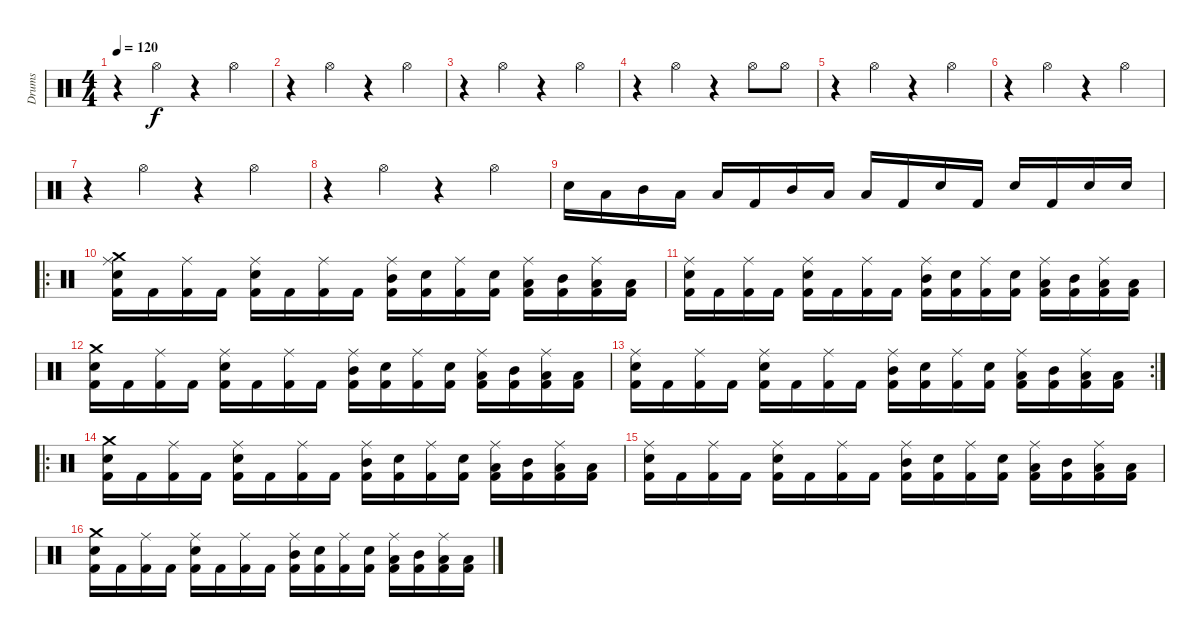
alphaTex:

\track ("Drums" "Drums") {instrument percussion}
\staff {score}
\articulation defaults
\ts (4 4)
\tempo 120
\clef neutral
\ks c
r.4{dy f} "Hi-Hat (open)".4 r.4 "Hi-Hat (open)".4 |
r.4 "Hi-Hat (open)".4 r.4 "Hi-Hat (open)".4 |
r.4 "Hi-Hat (open)".4 r.4 "Hi-Hat (open)".4 |
r.4 "Hi-Hat (open)".4 r.4 "Hi-Hat (open)".8 "Hi-Hat (open)".8 |
r.4 "Hi-Hat (open)".4 r.4 "Hi-Hat (open)".4 |
r.4 "Hi-Hat (open)".4 r.4 "Hi-Hat (open)".4 |
r.4 "Hi-Hat (open)".4 r.4 "Hi-Hat (open)".4 |
r.4 "Hi-Hat (open)".4 r.4 "Hi-Hat (open)".4 |
"Snare (hit) 2".16 "Low Floor Tom (hit)".16 "Mid Tom (hit)".16 "Low Tom (hit)".16 "Low Floor Tom (hit)".16 "Kick (hit) 2".16 "Mid Tom (hit)".16 "Low Tom (hit)".16 "Low Floor Tom (hit)".16 "Kick (hit) 2".16 "Snare (hit) 2".16 "Kick (hit) 2".16 "Snare (hit) 2".16 "Kick (hit) 2".16 "Snare (hit) 2".16 "Snare (hit) 2".16 |
\ro
("Crash medium (hit)" "Ride (middle)" "Snare (hit) 2" "Kick (hit) 2").16 "Kick (hit) 2".16 ("Ride (middle)" "Kick (hit) 2").16 "Kick (hit) 2".16 ("Ride (middle)" "Snare (hit) 2" "Kick (hit) 2").16 "Kick (hit) 2".16 ("Ride (middle)" "Kick (hit) 2").16 "Kick (hit) 2".16 ("Ride (middle)" "Mid Tom (hit)" "Kick (hit) 2").16 ("Snare (hit) 2" "Kick (hit) 2").16 ("Ride (middle)" "Kick (hit) 2").16 ("Snare (hit) 2" "Kick (hit) 2").16 ("Ride (middle)" "Low Floor Tom (hit)" "Kick (hit) 2").16 ("Mid Tom (hit)" "Kick (hit) 2").16 ("Ride (middle)" "Low Tom (hit)" "Kick (hit) 2").16 ("Low Floor Tom (hit)" "Kick (hit) 2").16 |
("Ride (middle)" "Snare (hit) 2" "Kick (hit) 2").16 "Kick (hit) 2".16 ("Ride (middle)" "Kick (hit) 2").16 "Kick (hit) 2".16 ("Ride (middle)" "Snare (hit) 2" "Kick (hit) 2").16 "Kick (hit) 2".16 ("Ride (middle)" "Kick (hit) 2").16 "Kick (hit) 2".16 ("Ride (middle)" "Mid Tom (hit)" "Kick (hit) 2").16 ("Snare (hit) 2" "Kick (hit) 2").16 ("Ride (middle)" "Kick (hit) 2").16 ("Snare (hit) 2" "Kick (hit) 2").16 ("Ride (middle)" "Low Floor Tom (hit)" "Kick (hit) 2").16 ("Mid Tom (hit)" "Kick (hit) 2").16 ("Ride (middle)" "Low Tom (hit)" "Kick (hit) 2").16 ("Low Floor Tom (hit)" "Kick (hit) 2").16 |
("Crash medium (hit)" "Snare (hit) 2" "Kick (hit) 2").16 "Kick (hit) 2".16 ("Ride (middle)" "Kick (hit) 2").16 "Kick (hit) 2".16 ("Ride (middle)" "Snare (hit) 2" "Kick (hit) 2").16 "Kick (hit) 2".16 ("Ride (middle)" "Kick (hit) 2").16 "Kick (hit) 2".16 ("Ride (middle)" "Mid Tom (hit)" "Kick (hit) 2").16 ("Snare (hit) 2" "Kick (hit) 2").16 ("Ride (middle)" "Kick (hit) 2").16 ("Snare (hit) 2" "Kick (hit) 2").16 ("Ride (middle)" "Low Floor Tom (hit)" "Kick (hit) 2").16 ("Mid Tom (hit)" "Kick (hit) 2").16 ("Ride (middle)" "Low Tom (hit)" "Kick (hit) 2").16 ("Low Floor Tom (hit)" "Kick (hit) 2").16 |
\rc 2
("Ride (middle)" "Snare (hit) 2" "Kick (hit) 2").16 "Kick (hit) 2".16 ("Ride (middle)" "Kick (hit) 2").16 "Kick (hit) 2".16 ("Ride (middle)" "Snare (hit) 2" "Kick (hit) 2").16 "Kick (hit) 2".16 ("Ride (middle)" "Kick (hit) 2").16 "Kick (hit) 2".16 ("Ride (middle)" "Mid Tom (hit)" "Kick (hit) 2").16 ("Snare (hit) 2" "Kick (hit) 2").16 ("Ride (middle)" "Kick (hit) 2").16 ("Snare (hit) 2" "Kick (hit) 2").16 ("Ride (middle)" "Low Floor Tom (hit)" "Kick (hit) 2").16 ("Mid Tom (hit)" "Kick (hit) 2").16 ("Ride (middle)" "Low Tom (hit)" "Kick (hit) 2").16 ("Low Floor Tom (hit)" "Kick (hit) 2").16 |
\ro
("Crash medium (hit)" "Snare (hit) 2" "Kick (hit) 2").16 "Kick (hit) 2".16 ("Ride (middle)" "Kick (hit) 2").16 "Kick (hit) 2".16 ("Ride (middle)" "Snare (hit) 2" "Kick (hit) 2").16 "Kick (hit) 2".16 ("Ride (middle)" "Kick (hit) 2").16 "Kick (hit) 2".16 ("Ride (middle)" "Mid Tom (hit)" "Kick (hit) 2").16 ("Snare (hit) 2" "Kick (hit) 2").16 ("Ride (middle)" "Kick (hit) 2").16 ("Snare (hit) 2" "Kick (hit) 2").16 ("Ride (middle)" "Low Floor Tom (hit)" "Kick (hit) 2").16 ("Mid Tom (hit)" "Kick (hit) 2").16 ("Ride (middle)" "Low Tom (hit)" "Kick (hit) 2").16 ("Low Floor Tom (hit)" "Kick (hit) 2").16 |
("Ride (middle)" "Snare (hit) 2" "Kick (hit) 2").16 "Kick (hit) 2".16 ("Ride (middle)" "Kick (hit) 2").16 "Kick (hit) 2".16 ("Ride (middle)" "Snare (hit) 2" "Kick (hit) 2").16 "Kick (hit) 2".16 ("Ride (middle)" "Kick (hit) 2").16 "Kick (hit) 2".16 ("Ride (middle)" "Mid Tom (hit)" "Kick (hit) 2").16 ("Snare (hit) 2" "Kick (hit) 2").16 ("Ride (middle)" "Kick (hit) 2").16 ("Snare (hit) 2" "Kick (hit) 2").16 ("Ride (middle)" "Low Floor Tom (hit)" "Kick (hit) 2").16 ("Mid Tom (hit)" "Kick (hit) 2").16 ("Ride (middle)" "Low Tom (hit)" "Kick (hit) 2").16 ("Low Floor Tom (hit)" "Kick (hit) 2").16 |
("Crash medium (hit)" "Snare (hit) 2" "Kick (hit) 2").16 "Kick (hit) 2".16 ("Ride (middle)" "Kick (hit) 2").16 "Kick (hit) 2".16 ("Ride (middle)" "Snare (hit) 2" "Kick (hit) 2").16 "Kick (hit) 2".16 ("Ride (middle)" "Kick (hit) 2").16 "Kick (hit) 2".16 ("Ride (middle)" "Mid Tom (hit)" "Kick (hit) 2").16 ("Snare (hit) 2" "Kick (hit) 2").16 ("Ride (middle)" "Kick (hit) 2").16 ("Snare (hit) 2" "Kick (hit) 2").16 ("Ride (middle)" "Low Floor Tom (hit)" "Kick (hit) 2").16 ("Mid Tom (hit)" "Kick (hit) 2").16 ("Ride (middle)" "Low Tom (hit)" "Kick (hit) 2").16 ("Low Floor Tom (hit)" "Kick (hit) 2").16
